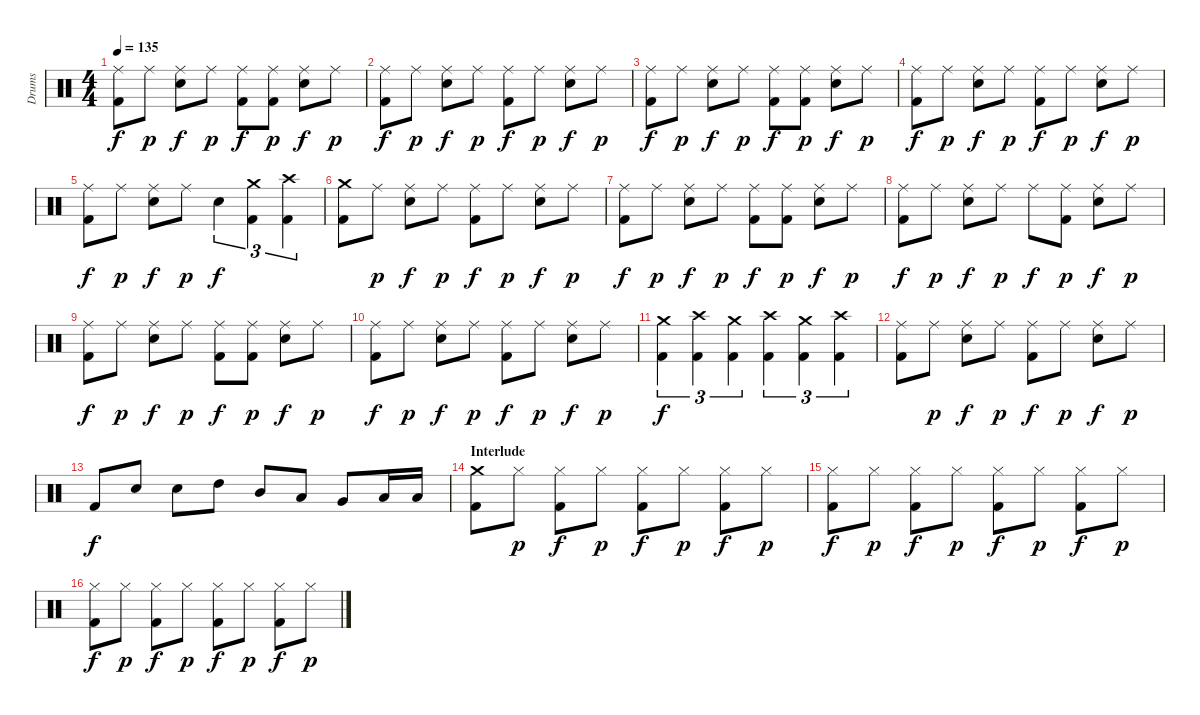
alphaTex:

\track ("Drums" "Drums") {instrument percussion}
\staff {score}
\articulation defaults
\ts (4 4)
\tempo 135
\clef neutral
\ks c
("Ride (middle)" "Kick (hit) 2").8{dy f} "Ride (middle)".8{dy p} ("Ride (middle)" "Snare (hit) 2").8{dy f} "Ride (middle)".8{dy p} ("Ride (middle)" "Kick (hit) 2").8{dy f} ("Ride (middle)" "Kick (hit) 2").8{dy p} ("Ride (middle)" "Snare (hit) 2").8{dy f} "Ride (middle)".8{dy p} |
("Ride (middle)" "Kick (hit) 2").8{dy f} "Ride (middle)".8{dy p} ("Ride (middle)" "Snare (hit) 2").8{dy f} "Ride (middle)".8{dy p} ("Ride (middle)" "Kick (hit) 2").8{dy f} "Ride (middle)".8{dy p} ("Ride (middle)" "Snare (hit) 2").8{dy f} "Ride (middle)".8{dy p} |
("Ride (middle)" "Kick (hit) 2").8{dy f} "Ride (middle)".8{dy p} ("Ride (middle)" "Snare (hit) 2").8{dy f} "Ride (middle)".8{dy p} ("Ride (middle)" "Kick (hit) 2").8{dy f} ("Ride (middle)" "Kick (hit) 2").8{dy p} ("Ride (middle)" "Snare (hit) 2").8{dy f} "Ride (middle)".8{dy p} |
("Ride (middle)" "Kick (hit) 2").8{dy f} "Ride (middle)".8{dy p} ("Ride (middle)" "Snare (hit) 2").8{dy f} "Ride (middle)".8{dy p} ("Ride (middle)" "Kick (hit) 2").8{dy f} "Ride (middle)".8{dy p} ("Ride (middle)" "Snare (hit) 2").8{dy f} "Ride (middle)".8{dy p} |
("Ride (middle)" "Kick (hit) 2").8{dy f} "Ride (middle)".8{dy p} ("Ride (middle)" "Snare (hit) 2").8{dy f} "Ride (middle)".8{dy p} "Snare (hit) 2".4{tu (3 2) dy f} ("Crash medium (hit)" "Kick (hit) 2").4{tu (3 2)} ("Crash high (hit)" "Kick (hit) 2").4{tu (3 2)} |
("Crash medium (hit)" "Kick (hit) 2").8 "Ride (middle)".8{dy p} ("Ride (middle)" "Snare (hit) 2").8{dy f} "Ride (middle)".8{dy p} ("Ride (middle)" "Kick (hit) 2").8{dy f} "Ride (middle)".8{dy p} ("Ride (middle)" "Snare (hit) 2").8{dy f} "Ride (middle)".8{dy p} |
("Ride (middle)" "Kick (hit) 2").8{dy f} "Ride (middle)".8{dy p} ("Ride (middle)" "Snare (hit) 2").8{dy f} "Ride (middle)".8{dy p} ("Ride (middle)" "Kick (hit) 2").8{dy f} ("Ride (middle)" "Kick (hit) 2").8{dy p} ("Ride (middle)" "Snare (hit) 2").8{dy f} "Ride (middle)".8{dy p} |
("Ride (middle)" "Kick (hit) 2").8{dy f} "Ride (middle)".8{dy p} ("Ride (middle)" "Snare (hit) 2").8{dy f} "Ride (middle)".8{dy p} "Ride (middle)".8{dy f} ("Ride (middle)" "Kick (hit) 2").8{dy p} ("Ride (middle)" "Snare (hit) 2").8{dy f} "Ride (middle)".8{dy p} |
("Ride (middle)" "Kick (hit) 2").8{dy f} "Ride (middle)".8{dy p} ("Ride (middle)" "Snare (hit) 2").8{dy f} "Ride (middle)".8{dy p} ("Ride (middle)" "Kick (hit) 2").8{dy f} ("Ride (middle)" "Kick (hit) 2").8{dy p} ("Ride (middle)" "Snare (hit) 2").8{dy f} "Ride (middle)".8{dy p} |
("Ride (middle)" "Kick (hit) 2").8{dy f} "Ride (middle)".8{dy p} ("Ride (middle)" "Snare (hit) 2").8{dy f} "Ride (middle)".8{dy p} ("Ride (middle)" "Kick (hit) 2").8{dy f} "Ride (middle)".8{dy p} ("Ride (middle)" "Snare (hit) 2").8{dy f} "Ride (middle)".8{dy p} |
("Crash medium (hit)" "Kick (hit) 2").4{tu (3 2) dy f} ("Crash high (hit)" "Kick (hit) 2").4{tu (3 2)} ("Crash medium (hit)" "Kick (hit) 2").4{tu (3 2)} ("Crash high (hit)" "Kick (hit) 2").4{tu (3 2)} ("Crash medium (hit)" "Kick (hit) 2").4{tu (3 2)} ("Crash high (hit)" "Kick (hit) 2").4{tu (3 2)} |
("Ride (middle)" "Kick (hit) 2").8 "Ride (middle)".8{dy p} ("Ride (middle)" "Snare (hit) 2").8{dy f} "Ride (middle)".8{dy p} ("Ride (middle)" "Kick (hit) 2").8{dy f} "Ride (middle)".8{dy p} ("Ride (middle)" "Snare (hit) 2").8{dy f} "Ride (middle)".8{dy p} |
"Kick (hit) 2".8{dy f} "Snare (hit) 2".8 "Snare (hit) 2".8 "High Tom (hit)".8 "Mid Tom (hit)".8 "Low Tom (hit)".8 "Very Low Tom (hit)".8 "Low Floor Tom (hit)".16 "Low Floor Tom (hit)".16 |
\section ("" "Interlude")
("Crash medium (hit)" "Kick (hit) 2").8 "Hi-Hat (closed)".8{dy p} ("Hi-Hat (closed)" "Kick (hit) 2").8{dy f} "Hi-Hat (closed)".8{dy p} ("Hi-Hat (closed)" "Kick (hit) 2").8{dy f} "Hi-Hat (closed)".8{dy p} ("Hi-Hat (closed)" "Kick (hit) 2").8{dy f} "Hi-Hat (closed)".8{dy p} |
("Hi-Hat (closed)" "Kick (hit) 2").8{dy f} "Hi-Hat (closed)".8{dy p} ("Hi-Hat (closed)" "Kick (hit) 2").8{dy f} "Hi-Hat (closed)".8{dy p} ("Hi-Hat (closed)" "Kick (hit) 2").8{dy f} "Hi-Hat (closed)".8{dy p} ("Hi-Hat (closed)" "Kick (hit) 2").8{dy f} "Hi-Hat (closed)".8{dy p} |
("Hi-Hat (closed)" "Kick (hit) 2").8{dy f} "Hi-Hat (closed)".8{dy p} ("Hi-Hat (closed)" "Kick (hit) 2").8{dy f} "Hi-Hat (closed)".8{dy p} ("Hi-Hat (closed)" "Kick (hit) 2").8{dy f} "Hi-Hat (closed)".8{dy p} ("Hi-Hat (closed)" "Kick (hit) 2").8{dy f} "Hi-Hat (closed)".8{dy p}
